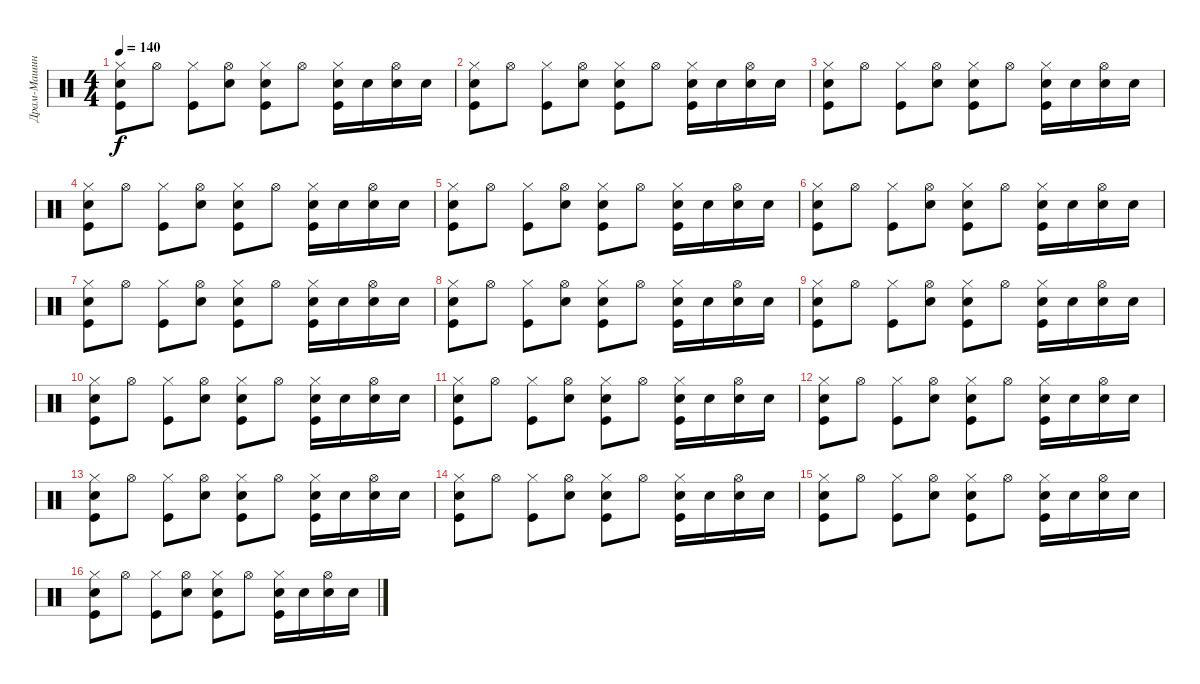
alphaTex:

\track ("Драм-Машина" "Драм-Машин") {instrument percussion}
\staff {score}
\articulation defaults
\ts (4 4)
\tempo 140
\clef neutral
\ks c
("Snare (hit) 2" "Hi-Hat (closed)" "Kick (hit)").8{dy f} "Hi-Hat (open)".8 ("Hi-Hat (closed)" "Kick (hit)").8 ("Snare (hit) 2" "Hi-Hat (open)").8 ("Snare (hit) 2" "Hi-Hat (closed)" "Kick (hit)").8 "Hi-Hat (open)".8 ("Snare (hit) 2" "Hi-Hat (closed)" "Kick (hit)").16 "Snare (hit) 2".16 ("Snare (hit) 2" "Hi-Hat (open)").16 "Snare (hit) 2".16 |
("Snare (hit) 2" "Hi-Hat (closed)" "Kick (hit)").8 "Hi-Hat (open)".8 ("Hi-Hat (closed)" "Kick (hit)").8 ("Snare (hit) 2" "Hi-Hat (open)").8 ("Snare (hit) 2" "Hi-Hat (closed)" "Kick (hit)").8 "Hi-Hat (open)".8 ("Snare (hit) 2" "Hi-Hat (closed)" "Kick (hit)").16 "Snare (hit) 2".16 ("Snare (hit) 2" "Hi-Hat (open)").16 "Snare (hit) 2".16 |
("Snare (hit) 2" "Hi-Hat (closed)" "Kick (hit)").8 "Hi-Hat (open)".8 ("Hi-Hat (closed)" "Kick (hit)").8 ("Snare (hit) 2" "Hi-Hat (open)").8 ("Snare (hit) 2" "Hi-Hat (closed)" "Kick (hit)").8 "Hi-Hat (open)".8 ("Snare (hit) 2" "Hi-Hat (closed)" "Kick (hit)").16 "Snare (hit) 2".16 ("Snare (hit) 2" "Hi-Hat (open)").16 "Snare (hit) 2".16 |
("Snare (hit) 2" "Hi-Hat (closed)" "Kick (hit)").8 "Hi-Hat (open)".8 ("Hi-Hat (closed)" "Kick (hit)").8 ("Snare (hit) 2" "Hi-Hat (open)").8 ("Snare (hit) 2" "Hi-Hat (closed)" "Kick (hit)").8 "Hi-Hat (open)".8 ("Snare (hit) 2" "Hi-Hat (closed)" "Kick (hit)").16 "Snare (hit) 2".16 ("Snare (hit) 2" "Hi-Hat (open)").16 "Snare (hit) 2".16 |
("Snare (hit) 2" "Hi-Hat (closed)" "Kick (hit)").8 "Hi-Hat (open)".8 ("Hi-Hat (closed)" "Kick (hit)").8 ("Snare (hit) 2" "Hi-Hat (open)").8 ("Snare (hit) 2" "Hi-Hat (closed)" "Kick (hit)").8 "Hi-Hat (open)".8 ("Snare (hit) 2" "Hi-Hat (closed)" "Kick (hit)").16 "Snare (hit) 2".16 ("Snare (hit) 2" "Hi-Hat (open)").16 "Snare (hit) 2".16 |
("Snare (hit) 2" "Hi-Hat (closed)" "Kick (hit)").8 "Hi-Hat (open)".8 ("Hi-Hat (closed)" "Kick (hit)").8 ("Snare (hit) 2" "Hi-Hat (open)").8 ("Snare (hit) 2" "Hi-Hat (closed)" "Kick (hit)").8 "Hi-Hat (open)".8 ("Snare (hit) 2" "Hi-Hat (closed)" "Kick (hit)").16 "Snare (hit) 2".16 ("Snare (hit) 2" "Hi-Hat (open)").16 "Snare (hit) 2".16 |
("Hi-Hat (closed)" "Kick (hit)" "Snare (hit) 2").8 "Hi-Hat (open)".8 ("Hi-Hat (closed)" "Kick (hit)").8 ("Hi-Hat (open)" "Snare (hit) 2").8 ("Hi-Hat (closed)" "Kick (hit)" "Snare (hit) 2").8 "Hi-Hat (open)".8 ("Hi-Hat (closed)" "Kick (hit)" "Snare (hit) 2").16 "Snare (hit) 2".16 ("Hi-Hat (open)" "Snare (hit) 2").16 "Snare (hit) 2".16 |
("Hi-Hat (closed)" "Kick (hit)" "Snare (hit) 2").8 "Hi-Hat (open)".8 ("Hi-Hat (closed)" "Kick (hit)").8 ("Hi-Hat (open)" "Snare (hit) 2").8 ("Hi-Hat (closed)" "Kick (hit)" "Snare (hit) 2").8 "Hi-Hat (open)".8 ("Hi-Hat (closed)" "Kick (hit)" "Snare (hit) 2").16 "Snare (hit) 2".16 ("Hi-Hat (open)" "Snare (hit) 2").16 "Snare (hit) 2".16 |
("Snare (hit) 2" "Hi-Hat (closed)" "Kick (hit)").8 "Hi-Hat (open)".8 ("Hi-Hat (closed)" "Kick (hit)").8 ("Snare (hit) 2" "Hi-Hat (open)").8 ("Snare (hit) 2" "Hi-Hat (closed)" "Kick (hit)").8 "Hi-Hat (open)".8 ("Snare (hit) 2" "Hi-Hat (closed)" "Kick (hit)").16 "Snare (hit) 2".16 ("Snare (hit) 2" "Hi-Hat (open)").16 "Snare (hit) 2".16 |
("Snare (hit) 2" "Hi-Hat (closed)" "Kick (hit)").8 "Hi-Hat (open)".8 ("Hi-Hat (closed)" "Kick (hit)").8 ("Snare (hit) 2" "Hi-Hat (open)").8 ("Snare (hit) 2" "Hi-Hat (closed)" "Kick (hit)").8 "Hi-Hat (open)".8 ("Snare (hit) 2" "Hi-Hat (closed)" "Kick (hit)").16 "Snare (hit) 2".16 ("Snare (hit) 2" "Hi-Hat (open)").16 "Snare (hit) 2".16 |
("Snare (hit) 2" "Hi-Hat (closed)" "Kick (hit)").8 "Hi-Hat (open)".8 ("Hi-Hat (closed)" "Kick (hit)").8 ("Snare (hit) 2" "Hi-Hat (open)").8 ("Snare (hit) 2" "Hi-Hat (closed)" "Kick (hit)").8 "Hi-Hat (open)".8 ("Snare (hit) 2" "Hi-Hat (closed)" "Kick (hit)").16 "Snare (hit) 2".16 ("Snare (hit) 2" "Hi-Hat (open)").16 "Snare (hit) 2".16 |
("Snare (hit) 2" "Hi-Hat (closed)" "Kick (hit)").8 "Hi-Hat (open)".8 ("Hi-Hat (closed)" "Kick (hit)").8 ("Snare (hit) 2" "Hi-Hat (open)").8 ("Snare (hit) 2" "Hi-Hat (closed)" "Kick (hit)").8 "Hi-Hat (open)".8 ("Snare (hit) 2" "Hi-Hat (closed)" "Kick (hit)").16 "Snare (hit) 2".16 ("Snare (hit) 2" "Hi-Hat (open)").16 "Snare (hit) 2".16 |
("Snare (hit) 2" "Hi-Hat (closed)" "Kick (hit)").8 "Hi-Hat (open)".8 ("Hi-Hat (closed)" "Kick (hit)").8 ("Snare (hit) 2" "Hi-Hat (open)").8 ("Snare (hit) 2" "Hi-Hat (closed)" "Kick (hit)").8 "Hi-Hat (open)".8 ("Snare (hit) 2" "Hi-Hat (closed)" "Kick (hit)").16 "Snare (hit) 2".16 ("Snare (hit) 2" "Hi-Hat (open)").16 "Snare (hit) 2".16 |
("Snare (hit) 2" "Hi-Hat (closed)" "Kick (hit)").8 "Hi-Hat (open)".8 ("Hi-Hat (closed)" "Kick (hit)").8 ("Snare (hit) 2" "Hi-Hat (open)").8 ("Snare (hit) 2" "Hi-Hat (closed)" "Kick (hit)").8 "Hi-Hat (open)".8 ("Snare (hit) 2" "Hi-Hat (closed)" "Kick (hit)").16 "Snare (hit) 2".16 ("Snare (hit) 2" "Hi-Hat (open)").16 "Snare (hit) 2".16 |
("Snare (hit) 2" "Hi-Hat (closed)" "Kick (hit)").8 "Hi-Hat (open)".8 ("Hi-Hat (closed)" "Kick (hit)").8 ("Snare (hit) 2" "Hi-Hat (open)").8 ("Snare (hit) 2" "Hi-Hat (closed)" "Kick (hit)").8 "Hi-Hat (open)".8 ("Snare (hit) 2" "Hi-Hat (closed)" "Kick (hit)").16 "Snare (hit) 2".16 ("Snare (hit) 2" "Hi-Hat (open)").16 "Snare (hit) 2".16 |
("Snare (hit) 2" "Hi-Hat (closed)" "Kick (hit)").8 "Hi-Hat (open)".8 ("Hi-Hat (closed)" "Kick (hit)").8 ("Snare (hit) 2" "Hi-Hat (open)").8 ("Snare (hit) 2" "Hi-Hat (closed)" "Kick (hit)").8 "Hi-Hat (open)".8 ("Snare (hit) 2" "Hi-Hat (closed)" "Kick (hit)").16 "Snare (hit) 2".16 ("Snare (hit) 2" "Hi-Hat (open)").16 "Snare (hit) 2".16
